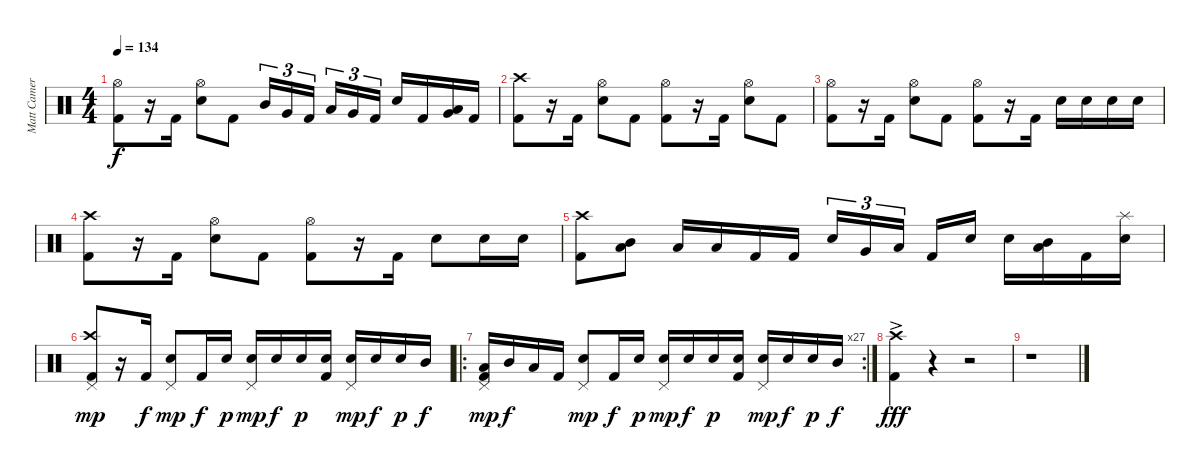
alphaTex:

\track ("Matt Cameron" "Matt Camer") {instrument percussion}
\staff {score}
\articulation defaults
\ts (4 4)
\tempo 134
\clef neutral
\ks c
("Hi-Hat (open)" "Kick (hit) 2").8{dy f} r.16 "Kick (hit) 2".16 ("Hi-Hat (open)" "Electric Snare (hit)").8 "Kick (hit) 2".8 "Mid Tom (hit)".16{tu (3 2)} "Very Low Tom (hit)".16{tu (3 2)} "Kick (hit) 2".16{tu (3 2)} "Low Tom (hit)".16{tu (3 2)} "Very Low Tom (hit)".16{tu (3 2)} "Kick (hit) 2".16{tu (3 2)} "Electric Snare (hit)".16 "Kick (hit) 2".16 ("Very Low Tom (hit)" "Low Floor Tom (hit)").16 "Kick (hit) 2".16 |
("Crash high (hit)" "Kick (hit) 2").8 r.16 "Kick (hit) 2".16 ("Hi-Hat (open)" "Electric Snare (hit)").8 "Kick (hit) 2".8 ("Hi-Hat (open)" "Kick (hit) 2").8 r.16 "Kick (hit) 2".16 ("Hi-Hat (open)" "Electric Snare (hit)").8 "Kick (hit) 2".8 |
("Hi-Hat (open)" "Kick (hit) 2").8 r.16 "Kick (hit) 2".16 ("Hi-Hat (open)" "Electric Snare (hit)").8 "Kick (hit) 2".8 ("Hi-Hat (open)" "Kick (hit) 2").8 r.16 "Kick (hit) 2".16 "Electric Snare (hit)".16 "Electric Snare (hit)".16 "Electric Snare (hit)".16 "Electric Snare (hit)".16 |
("Crash high (hit)" "Kick (hit) 2").8 r.16 "Kick (hit) 2".16 ("Hi-Hat (open)" "Electric Snare (hit)").8 "Kick (hit) 2".8 ("Hi-Hat (open)" "Kick (hit) 2").8 r.16 "Kick (hit) 2".16 "Electric Snare (hit)".8 "Electric Snare (hit)".16 "Electric Snare (hit)".16 |
("Crash high (hit)" "Kick (hit) 2").8 ("Mid Tom (hit)" "Low Tom (hit)").8 "Low Tom (hit)".16 "Low Tom (hit)".16 "Kick (hit) 2".16 "Kick (hit) 2".16 "Electric Snare (hit)".16{tu (3 2)} "Very Low Tom (hit)".16{tu (3 2)} "Low Floor Tom (hit)".16{tu (3 2)} "Kick (hit) 2".16 "Electric Snare (hit)".16 "Electric Snare (hit)".16 ("Mid Tom (hit)" "Low Tom (hit)").16 "Kick (hit) 2".16 ("Splash (hit)" "Electric Snare (hit)").16 |
("Crash high (hit)" "Pedal Hi-Hat (hit)" "Kick (hit) 2").8{dy mp} r.16 "Kick (hit) 2".16{dy f} ("Electric Snare (hit)" "Pedal Hi-Hat (hit)").8{dy mp} "Kick (hit) 2".16{dy f} "Electric Snare (hit)".16{dy p} ("Electric Snare (hit)" "Pedal Hi-Hat (hit)").16{dy mp} "Electric Snare (hit)".16{dy f} "Electric Snare (hit)".16{dy p} ("Electric Snare (hit)" "Kick (hit) 2").16 ("Electric Snare (hit)" "Pedal Hi-Hat (hit)").16{dy mp} "Electric Snare (hit)".16{dy f} "Electric Snare (hit)".16{dy p} "Mid Tom (hit)".16{dy f} |
\ro
\rc 27
("Low Tom (hit)" "Pedal Hi-Hat (hit)" "Kick (hit) 2").16{dy mp} "Mid Tom (hit)".16{dy f} "Low Tom (hit)".16 "Kick (hit) 2".16 ("Electric Snare (hit)" "Pedal Hi-Hat (hit)").8{dy mp} "Kick (hit) 2".16{dy f} "Electric Snare (hit)".16{dy p} ("Electric Snare (hit)" "Pedal Hi-Hat (hit)").16{dy mp} "Electric Snare (hit)".16{dy f} "Electric Snare (hit)".16{dy p} ("Electric Snare (hit)" "Kick (hit) 2").16 ("Electric Snare (hit)" "Pedal Hi-Hat (hit)").16{dy mp} "Electric Snare (hit)".16{dy f} "Electric Snare (hit)".16{dy p} "Mid Tom (hit)".16{dy f} |
("Crash high (hit)"{ac} "Kick (hit) 2").4{dy fff} r.4 r.2 |
r.1
